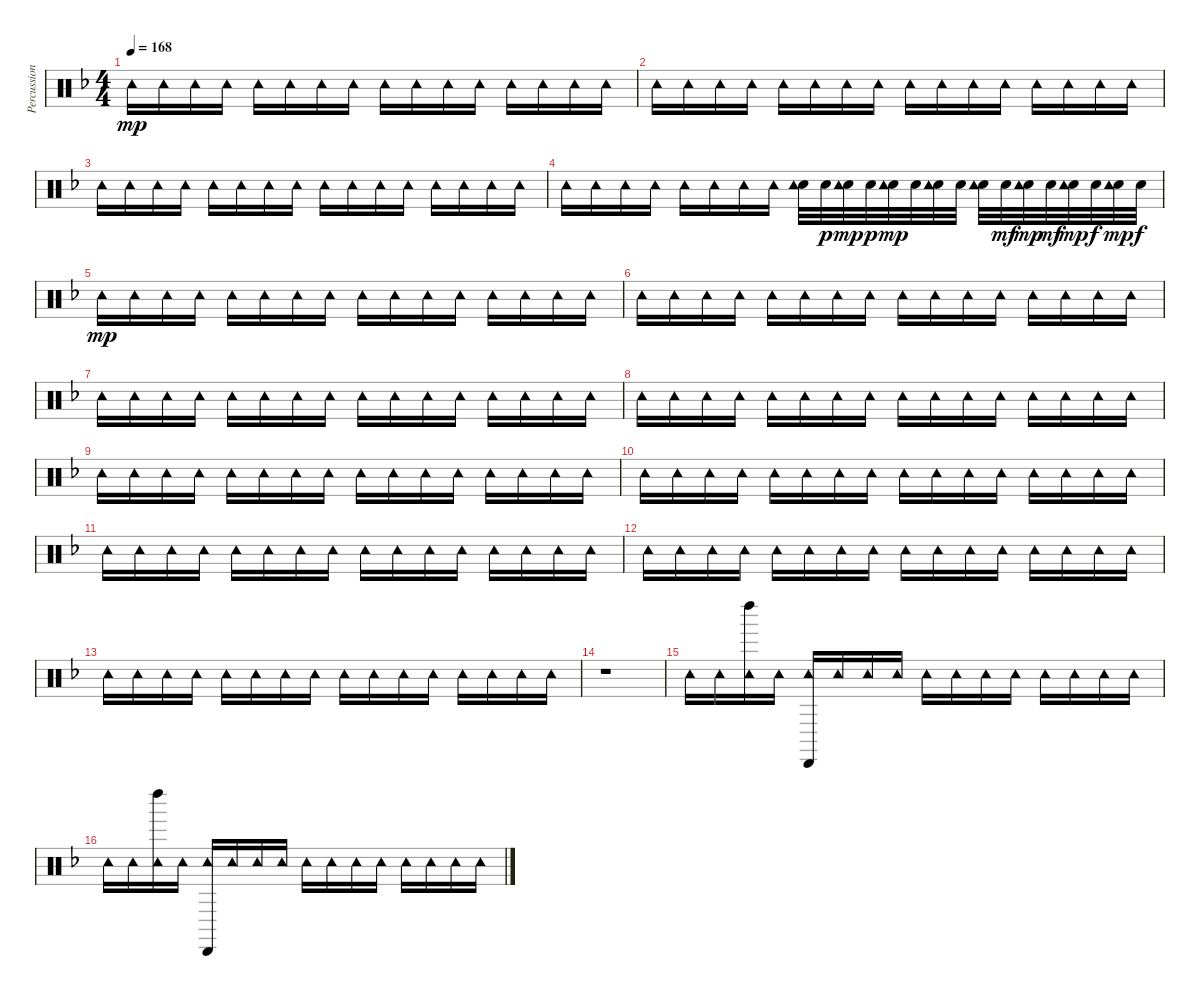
\track ("Percussions" "Percussion") {instrument percussion}
\staff {score}
\articulation defaults
\ts (4 4)
\tempo 168
\clef neutral
\ks f "Tambourine (hit)".16{dy mp} "Tambourine (hit)".16 "Tambourine (hit)".16 "Tambourine (hit)".16 "Tambourine (hit)".16 "Tambourine (hit)".16 "Tambourine (hit)".16 "Tambourine (hit)".16 "Tambourine (hit)".16 "Tambourine (hit)".16 "Tambourine (hit)".16 "Tambourine (hit)".16 "Tambourine (hit)".16 "Tambourine (hit)".16 "Tambourine (hit)".16 "Tambourine (hit)".16
|
"Tambourine (hit)".16 "Tambourine (hit)".16 "Tambourine (hit)".16 "Tambourine (hit)".16 "Tambourine (hit)".16 "Tambourine (hit)".16 "Tambourine (hit)".16 "Tambourine (hit)".16 "Tambourine (hit)".16 "Tambourine (hit)".16 "Tambourine (hit)".16 "Tambourine (hit)".16 "Tambourine (hit)".16 "Tambourine (hit)".16 "Tambourine (hit)".16 "Tambourine (hit)".16 |
"Tambourine (hit)".16 "Tambourine (hit)".16 "Tambourine (hit)".16 "Tambourine (hit)".16 "Tambourine (hit)".16 "Tambourine (hit)".16 "Tambourine (hit)".16 "Tambourine (hit)".16 "Tambourine (hit)".16 "Tambourine (hit)".16 "Tambourine (hit)".16 "Tambourine (hit)".16 "Tambourine (hit)".16 "Tambourine (hit)".16 "Tambourine (hit)".16 "Tambourine (hit)".16 |
"Tambourine (hit)".16 "Tambourine (hit)".16 "Tambourine (hit)".16 "Tambourine (hit)".16 "Tambourine (hit)".16 "Tambourine (hit)".16 "Tambourine (hit)".16 "Tambourine (hit)".16 ("Snare (hit) 2" "Tambourine (hit)").32 "Snare (hit) 2".32{dy p} ("Snare (hit) 2" "Tambourine (hit)").32{dy mp} "Snare (hit) 2".32{dy p} ("Snare (hit) 2" "Tambourine (hit)").32{dy mp} "Snare (hit) 2".32 ("Snare (hit) 2" "Tambourine (hit)").32 "Snare (hit) 2".32 ("Snare (hit) 2" "Tambourine (hit)").32 "Snare (hit) 2".32{dy mf} ("Snare (hit) 2" "Tambourine (hit)").32{dy mp} "Snare (hit) 2".32{dy mf} ("Snare (hit) 2" "Tambourine (hit)").32{dy mp} "Snare (hit) 2".32{dy f} ("Snare (hit) 2" "Tambourine (hit)").32{dy mp} "Snare (hit) 2".32{dy f} |
"Tambourine (hit)".16{dy mp} "Tambourine (hit)".16 "Tambourine (hit)".16 "Tambourine (hit)".16 "Tambourine (hit)".16 "Tambourine (hit)".16 "Tambourine (hit)".16 "Tambourine (hit)".16 "Tambourine (hit)".16 "Tambourine (hit)".16 "Tambourine (hit)".16 "Tambourine (hit)".16 "Tambourine (hit)".16 "Tambourine (hit)".16 "Tambourine (hit)".16 "Tambourine (hit)".16 |
"Tambourine (hit)".16 "Tambourine (hit)".16 "Tambourine (hit)".16 "Tambourine (hit)".16 "Tambourine (hit)".16 "Tambourine (hit)".16 "Tambourine (hit)".16 "Tambourine (hit)".16 "Tambourine (hit)".16 "Tambourine (hit)".16 "Tambourine (hit)".16 "Tambourine (hit)".16 "Tambourine (hit)".16 "Tambourine (hit)".16 "Tambourine (hit)".16 "Tambourine (hit)".16 |
"Tambourine (hit)".16 "Tambourine (hit)".16 "Tambourine (hit)".16 "Tambourine (hit)".16 "Tambourine (hit)".16 "Tambourine (hit)".16 "Tambourine (hit)".16 "Tambourine (hit)".16 "Tambourine (hit)".16 "Tambourine (hit)".16 "Tambourine (hit)".16 "Tambourine (hit)".16 "Tambourine (hit)".16 "Tambourine (hit)".16 "Tambourine (hit)".16 "Tambourine (hit)".16 |
"Tambourine (hit)".16 "Tambourine (hit)".16 "Tambourine (hit)".16 "Tambourine (hit)".16 "Tambourine (hit)".16 "Tambourine (hit)".16 "Tambourine (hit)".16 "Tambourine (hit)".16 "Tambourine (hit)".16 "Tambourine (hit)".16 "Tambourine (hit)".16 "Tambourine (hit)".16 "Tambourine (hit)".16 "Tambourine (hit)".16 "Tambourine (hit)".16 "Tambourine (hit)".16 |
"Tambourine (hit)".16 "Tambourine (hit)".16 "Tambourine (hit)".16 "Tambourine (hit)".16 "Tambourine (hit)".16 "Tambourine (hit)".16 "Tambourine (hit)".16 "Tambourine (hit)".16 "Tambourine (hit)".16 "Tambourine (hit)".16 "Tambourine (hit)".16 "Tambourine (hit)".16 "Tambourine (hit)".16 "Tambourine (hit)".16 "Tambourine (hit)".16 "Tambourine (hit)".16 |
"Tambourine (hit)".16 "Tambourine (hit)".16 "Tambourine (hit)".16 "Tambourine (hit)".16 "Tambourine (hit)".16 "Tambourine (hit)".16 "Tambourine (hit)".16 "Tambourine (hit)".16 "Tambourine (hit)".16 "Tambourine (hit)".16 "Tambourine (hit)".16 "Tambourine (hit)".16 "Tambourine (hit)".16 "Tambourine (hit)".16 "Tambourine (hit)".16 "Tambourine (hit)".16 |
"Tambourine (hit)".16 "Tambourine (hit)".16 "Tambourine (hit)".16 "Tambourine (hit)".16 "Tambourine (hit)".16 "Tambourine (hit)".16 "Tambourine (hit)".16 "Tambourine (hit)".16 "Tambourine (hit)".16 "Tambourine (hit)".16 "Tambourine (hit)".16 "Tambourine (hit)".16 "Tambourine (hit)".16 "Tambourine (hit)".16 "Tambourine (hit)".16 "Tambourine (hit)".16 |
"Tambourine (hit)".16 "Tambourine (hit)".16 "Tambourine (hit)".16 "Tambourine (hit)".16 "Tambourine (hit)".16 "Tambourine (hit)".16 "Tambourine (hit)".16 "Tambourine (hit)".16 "Tambourine (hit)".16 "Tambourine (hit)".16 "Tambourine (hit)".16 "Tambourine (hit)".16 "Tambourine (hit)".16 "Tambourine (hit)".16 "Tambourine (hit)".16 "Tambourine (hit)".16 |
"Tambourine (hit)".16 "Tambourine (hit)".16 "Tambourine (hit)".16 "Tambourine (hit)".16 "Tambourine (hit)".16 "Tambourine (hit)".16 "Tambourine (hit)".16 "Tambourine (hit)".16 "Tambourine (hit)".16 "Tambourine (hit)".16 "Tambourine (hit)".16 "Tambourine (hit)".16 "Tambourine (hit)".16 "Tambourine (hit)".16 "Tambourine (hit)".16 "Tambourine (hit)".16 |
r.1 |
"Tambourine (hit)".16 "Tambourine (hit)".16 ("Left Maraca (hit)" "Tambourine (hit)").16 "Tambourine (hit)".16 ("Cabasa (hit)" "Tambourine (hit)").16 "Tambourine (hit)".16 "Tambourine (hit)".16 "Tambourine (hit)".16 "Tambourine (hit)".16 "Tambourine (hit)".16 "Tambourine (hit)".16 "Tambourine (hit)".16 "Tambourine (hit)".16 "Tambourine (hit)".16 "Tambourine (hit)".16 "Tambourine (hit)".16 |
"Tambourine (hit)".16 "Tambourine (hit)".16 ("Left Maraca (hit)" "Tambourine (hit)").16 "Tambourine (hit)".16 ("Cabasa (hit)" "Tambourine (hit)").16 "Tambourine (hit)".16 "Tambourine (hit)".16 "Tambourine (hit)".16 "Tambourine (hit)".16 "Tambourine (hit)".16 "Tambourine (hit)".16 "Tambourine (hit)".16 "Tambourine (hit)".16 "Tambourine (hit)".16 "Tambourine (hit)".16 "Tambourine (hit)".16
